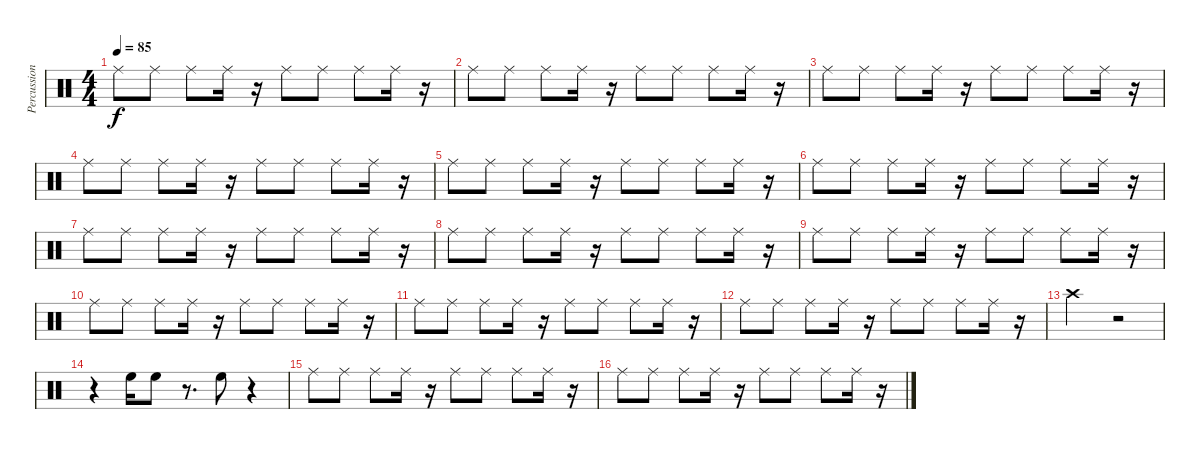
\track ("Percussion" "Percussion") {instrument percussion}
\staff {score}
\articulation defaults
\ts (4 4)
\tempo 85
\clef neutral
\ks c "Ride (middle)".8{dy f} "Ride (middle)".8 "Ride (middle)".8 "Ride (middle)".16
r.16 "Ride (middle)".8 "Ride (middle)".8 "Ride (middle)".8 "Ride (middle)".16 r.16 |
"Ride (middle)".8 "Ride (middle)".8 "Ride (middle)".8 "Ride (middle)".16 r.16 "Ride (middle)".8 "Ride (middle)".8 "Ride (middle)".8 "Ride (middle)".16 r.16 |
"Ride (middle)".8 "Ride (middle)".8 "Ride (middle)".8 "Ride (middle)".16 r.16 "Ride (middle)".8 "Ride (middle)".8 "Ride (middle)".8 "Ride (middle)".16 r.16 |
"Ride (middle)".8 "Ride (middle)".8 "Ride (middle)".8 "Ride (middle)".16 r.16 "Ride (middle)".8 "Ride (middle)".8 "Ride (middle)".8 "Ride (middle)".16 r.16 |
"Ride (middle)".8 "Ride (middle)".8 "Ride (middle)".8 "Ride (middle)".16 r.16 "Ride (middle)".8 "Ride (middle)".8 "Ride (middle)".8 "Ride (middle)".16 r.16 |
"Ride (middle)".8 "Ride (middle)".8 "Ride (middle)".8 "Ride (middle)".16 r.16 "Ride (middle)".8 "Ride (middle)".8 "Ride (middle)".8 "Ride (middle)".16 r.16 |
"Ride (middle)".8 "Ride (middle)".8 "Ride (middle)".8 "Ride (middle)".16 r.16 "Ride (middle)".8 "Ride (middle)".8 "Ride (middle)".8 "Ride (middle)".16 r.16 |
"Ride (middle)".8 "Ride (middle)".8 "Ride (middle)".8 "Ride (middle)".16 r.16 "Ride (middle)".8 "Ride (middle)".8 "Ride (middle)".8 "Ride (middle)".16 r.16 |
"Ride (middle)".8 "Ride (middle)".8 "Ride (middle)".8 "Ride (middle)".16 r.16 "Ride (middle)".8 "Ride (middle)".8 "Ride (middle)".8 "Ride (middle)".16 r.16 |
"Ride (middle)".8 "Ride (middle)".8 "Ride (middle)".8 "Ride (middle)".16 r.16 "Ride (middle)".8 "Ride (middle)".8 "Ride (middle)".8 "Ride (middle)".16 r.16 |
"Ride (middle)".8 "Ride (middle)".8 "Ride (middle)".8 "Ride (middle)".16 r.16 "Ride (middle)".8 "Ride (middle)".8 "Ride (middle)".8 "Ride (middle)".16 r.16 |
"Ride (middle)".8 "Ride (middle)".8 "Ride (middle)".8 "Ride (middle)".16 r.16 "Ride (middle)".8 "Ride (middle)".8 "Ride (middle)".8 "Ride (middle)".16 r.16 |
"Crash high (hit)".2 r.2 |
r.4 "High Floor Tom (hit)".16 "High Floor Tom (hit)".8 r.8{d} "High Floor Tom (hit)".8 r.4 |
"Ride (middle)".8 "Ride (middle)".8 "Ride (middle)".8 "Ride (middle)".16 r.16 "Ride (middle)".8 "Ride (middle)".8 "Ride (middle)".8 "Ride (middle)".16 r.16 |
"Ride (middle)".8 "Ride (middle)".8 "Ride (middle)".8 "Ride (middle)".16 r.16 "Ride (middle)".8 "Ride (middle)".8 "Ride (middle)".8 "Ride (middle)".16 r.16
